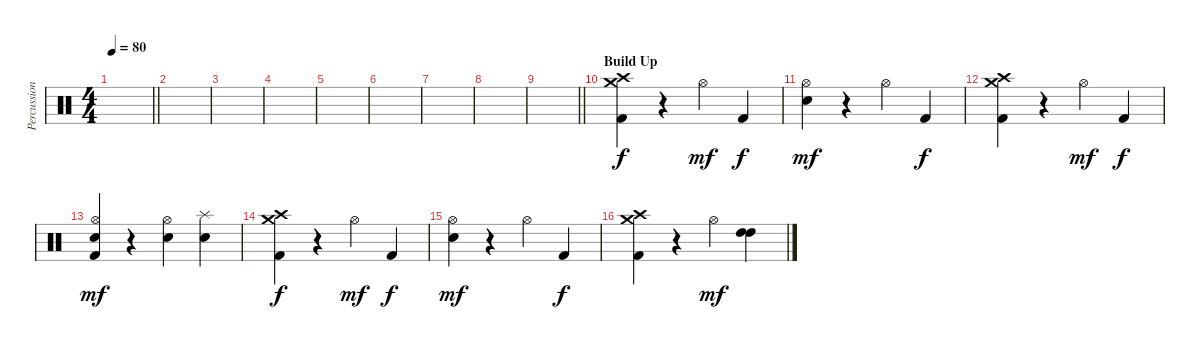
\track ("Percussioni" "Percussion") {instrument percussion}
\staff {score}
\articulation defaults
\ts (4 4)
\tempo 80
\clef neutral
\barLineRight lightlight
\ks c
|
\section ("" "")
|
|
|
|
|
|
|
\barLineRight lightlight
|
\section ("" "Build Up")
("Crash high (hit)" "Crash medium (hit)" "Kick (hit) 2").4 r.4 "Hi-Hat (open)".4{dy mf} "Kick (hit) 2".4{dy f} |
("Hi-Hat (open)" "Snare (hit) 2").4{dy mf} r.4 "Hi-Hat (open)".4 "Kick (hit) 2".4{dy f} |
("Crash high (hit)" "Crash medium (hit)" "Kick (hit) 2").4 r.4 "Hi-Hat (open)".4{dy mf} "Kick (hit) 2".4{dy f} |
("Hi-Hat (open)" "Snare (hit) 2" "Kick (hit) 2").4{dy mf} r.4 ("Hi-Hat (open)" "Snare (hit) 2").4 ("Splash (hit)" "Snare (hit) 2").4 |
("Crash high (hit)" "Crash medium (hit)" "Kick (hit) 2").4{dy f} r.4 "Hi-Hat (open)".4{dy mf} "Kick (hit) 2".4{dy f} |
("Hi-Hat (open)" "Snare (hit) 2").4{dy mf} r.4 "Hi-Hat (open)".4 "Kick (hit) 2".4{dy f} |
("Crash high (hit)" "Crash medium (hit)" "Kick (hit) 2").4 r.4 "Hi-Hat (open)".4{dy mf} ("High Tom (hit)" "High Tom (hit)").4
